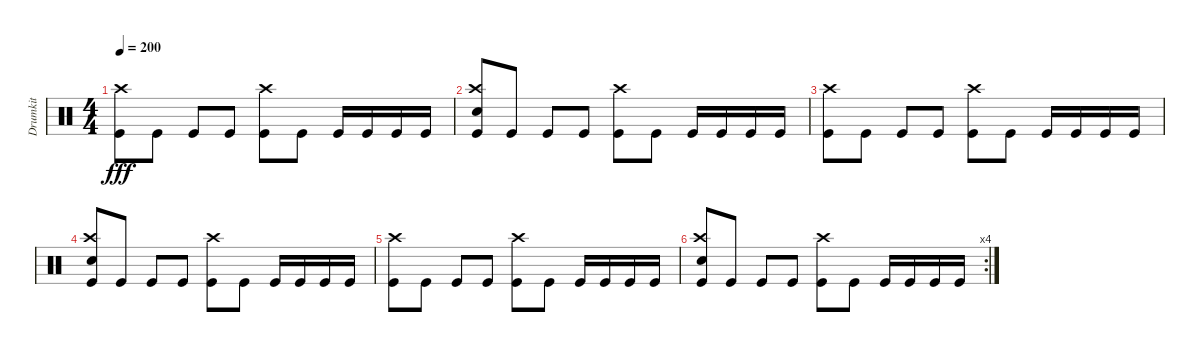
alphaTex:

\track ("Drumkit" "Drumkit") {instrument percussion}
\staff {score}
\articulation defaults
\ts (4 4)
\tempo 200
\clef neutral
\ks c
("Kick (hit)" "Crash high (hit)").8{dy fff} "Kick (hit)".8 "Kick (hit)".8 "Kick (hit)".8 ("Kick (hit)" "Crash high (hit)").8 "Kick (hit)".8 "Kick (hit)".16 "Kick (hit)".16 "Kick (hit)".16 "Kick (hit)".16 |
("Kick (hit)" "Crash high (hit)" "Snare (hit) 2").8 "Kick (hit)".8 "Kick (hit)".8 "Kick (hit)".8 ("Kick (hit)" "Crash high (hit)").8 "Kick (hit)".8 "Kick (hit)".16 "Kick (hit)".16 "Kick (hit)".16 "Kick (hit)".16 |
("Kick (hit)" "Crash high (hit)").8 "Kick (hit)".8 "Kick (hit)".8 "Kick (hit)".8 ("Kick (hit)" "Crash high (hit)").8 "Kick (hit)".8 "Kick (hit)".16 "Kick (hit)".16 "Kick (hit)".16 "Kick (hit)".16 |
("Kick (hit)" "Crash high (hit)" "Snare (hit) 2").8 "Kick (hit)".8 "Kick (hit)".8 "Kick (hit)".8 ("Kick (hit)" "Crash high (hit)").8 "Kick (hit)".8 "Kick (hit)".16 "Kick (hit)".16 "Kick (hit)".16 "Kick (hit)".16 |
("Kick (hit)" "Crash high (hit)").8 "Kick (hit)".8 "Kick (hit)".8 "Kick (hit)".8 ("Kick (hit)" "Crash high (hit)").8 "Kick (hit)".8 "Kick (hit)".16 "Kick (hit)".16 "Kick (hit)".16 "Kick (hit)".16 |
\rc 4
("Kick (hit)" "Crash high (hit)" "Snare (hit) 2").8 "Kick (hit)".8 "Kick (hit)".8 "Kick (hit)".8 ("Kick (hit)" "Crash high (hit)").8 "Kick (hit)".8 "Kick (hit)".16 "Kick (hit)".16 "Kick (hit)".16 "Kick (hit)".16
